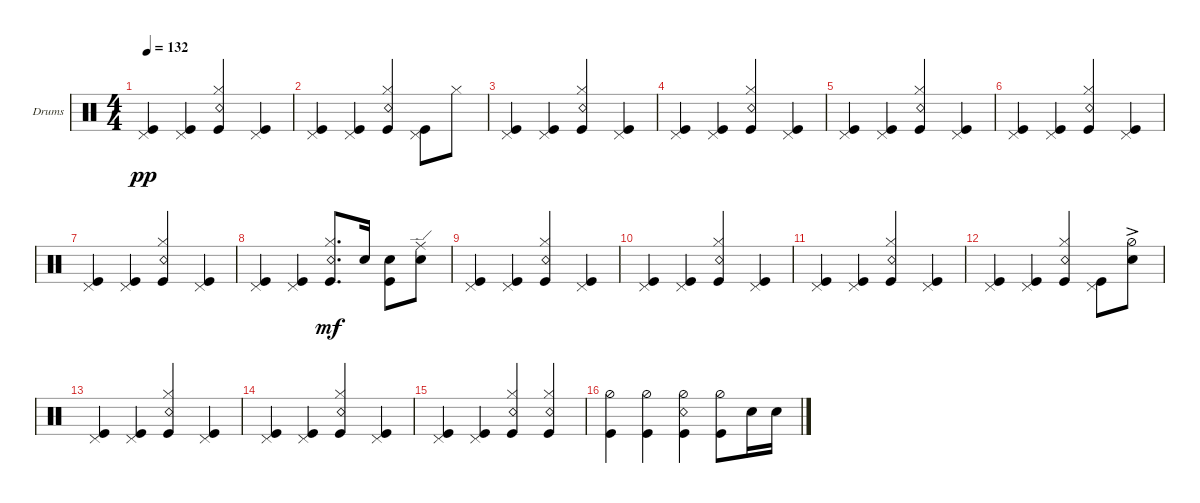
\defaultSystemsLayout 4
\bracketExtendMode groupsimilarinstruments
\firstSystemTrackNameOrientation horizontal
\otherSystemsTrackNameOrientation horizontal
\track ("Steve Judd" "Drums") {instrument percussion}
\staff {score}
\articulation defaults
\ts (4 4)
\tempo 132
\clef neutral
\scale
0.333333
\ks c
("Kick (hit)" "Pedal Hi-Hat (hit)").4{dy pp} ("Kick (hit)" "Pedal Hi-Hat (hit)").4 ("Kick (hit)" "Hi-Hat (closed)" "Snare (rim shot)").4 ("Kick (hit)" "Pedal Hi-Hat (hit)").4 |
\scale
0.333333 ("Kick (hit)" "Pedal Hi-Hat (hit)").4 ("Kick (hit)" "Pedal Hi-Hat (hit)").4 ("Kick (hit)" "Hi-Hat (closed)" "Snare (rim shot)").4 ("Kick (hit)" "Pedal Hi-Hat (hit)").8 "Hi-Hat (closed)".8 |
\scale
0.333333 ("Kick (hit)" "Pedal Hi-Hat (hit)").4 ("Kick (hit)" "Pedal Hi-Hat (hit)").4 ("Kick (hit)" "Hi-Hat (closed)" "Snare (rim shot)").4 ("Kick (hit)" "Pedal Hi-Hat (hit)").4 |
\scale
0.333333 ("Kick (hit)" "Pedal Hi-Hat (hit)").4 ("Kick (hit)" "Pedal Hi-Hat (hit)").4 ("Kick (hit)" "Hi-Hat (closed)" "Snare (rim shot)").4 ("Kick (hit)" "Pedal Hi-Hat (hit)").4 |
\scale
0.333333 ("Kick (hit)" "Pedal Hi-Hat (hit)").4 ("Kick (hit)" "Pedal Hi-Hat (hit)").4 ("Kick (hit)" "Hi-Hat (closed)" "Snare (rim shot)").4 ("Kick (hit)" "Pedal Hi-Hat (hit)").4 |
\scale
0.333333 ("Kick (hit)" "Pedal Hi-Hat (hit)").4 ("Kick (hit)" "Pedal Hi-Hat (hit)").4 ("Kick (hit)" "Hi-Hat (closed)" "Snare (rim shot)").4 ("Kick (hit)" "Pedal Hi-Hat (hit)").4 |
\scale
0.333333 ("Kick (hit)" "Pedal Hi-Hat (hit)").4 ("Kick (hit)" "Pedal Hi-Hat (hit)").4 ("Kick (hit)" "Hi-Hat (closed)" "Snare (rim shot)").4 ("Kick (hit)" "Pedal Hi-Hat (hit)").4 |
\scale
0.333333 ("Kick (hit)" "Pedal Hi-Hat (hit)").4 ("Kick (hit)" "Pedal Hi-Hat (hit)").4 ("Kick (hit)" "Hi-Hat (closed)" "Snare (rim shot)").8{d dy mf} "Snare (hit) 2".16 ("Kick (hit)" "Snare (hit) 2").8 ("Snare (hit) 2" "Ride (edge)").8 |
\scale
0.333333 ("Kick (hit)" "Pedal Hi-Hat (hit)").4 ("Kick (hit)" "Pedal Hi-Hat (hit)").4 ("Kick (hit)" "Hi-Hat (closed)" "Snare (rim shot)").4 ("Kick (hit)" "Pedal Hi-Hat (hit)").4 |
\scale
0.333333 ("Kick (hit)" "Pedal Hi-Hat (hit)").4 ("Kick (hit)" "Pedal Hi-Hat (hit)").4 ("Kick (hit)" "Hi-Hat (closed)" "Snare (rim shot)").4 ("Kick (hit)" "Pedal Hi-Hat (hit)").4 |
\scale
0.333333 ("Kick (hit)" "Pedal Hi-Hat (hit)").4 ("Kick (hit)" "Pedal Hi-Hat (hit)").4 ("Kick (hit)" "Hi-Hat (closed)" "Snare (rim shot)").4 ("Kick (hit)" "Pedal Hi-Hat (hit)").4 |
\scale
0.333333 ("Kick (hit)" "Pedal Hi-Hat (hit)").4 ("Kick (hit)" "Pedal Hi-Hat (hit)").4 ("Kick (hit)" "Hi-Hat (closed)" "Snare (rim shot)").4 ("Kick (hit)" "Pedal Hi-Hat (hit)").8 ("Hi-Hat (half)" "Snare (hit) 2"{ac}).8 |
\scale
0.333333 ("Kick (hit)" "Pedal Hi-Hat (hit)").4 ("Kick (hit)" "Pedal Hi-Hat (hit)").4 ("Kick (hit)" "Hi-Hat (closed)" "Snare (rim shot)").4 ("Kick (hit)" "Pedal Hi-Hat (hit)").4 |
\scale
0.333333 ("Kick (hit)" "Pedal Hi-Hat (hit)").4 ("Kick (hit)" "Pedal Hi-Hat (hit)").4 ("Kick (hit)" "Hi-Hat (closed)" "Snare (rim shot)").4 ("Kick (hit)" "Pedal Hi-Hat (hit)").4 |
\scale
0.333333 ("Kick (hit)" "Pedal Hi-Hat (hit)").4 ("Kick (hit)" "Pedal Hi-Hat (hit)").4 ("Kick (hit)" "Hi-Hat (closed)" "Snare (rim shot)").4 ("Kick (hit)" "Hi-Hat (closed)" "Snare (rim shot)").4 |
\scale
0.333333 ("Kick (hit)" "Hi-Hat (half)").4 ("Kick (hit)" "Hi-Hat (half)").4 ("Kick (hit)" "Snare (rim shot)" "Hi-Hat (half)").4 ("Kick (hit)" "Hi-Hat (half)").8 "Snare (hit) 2".16 "Snare (hit) 2".16
